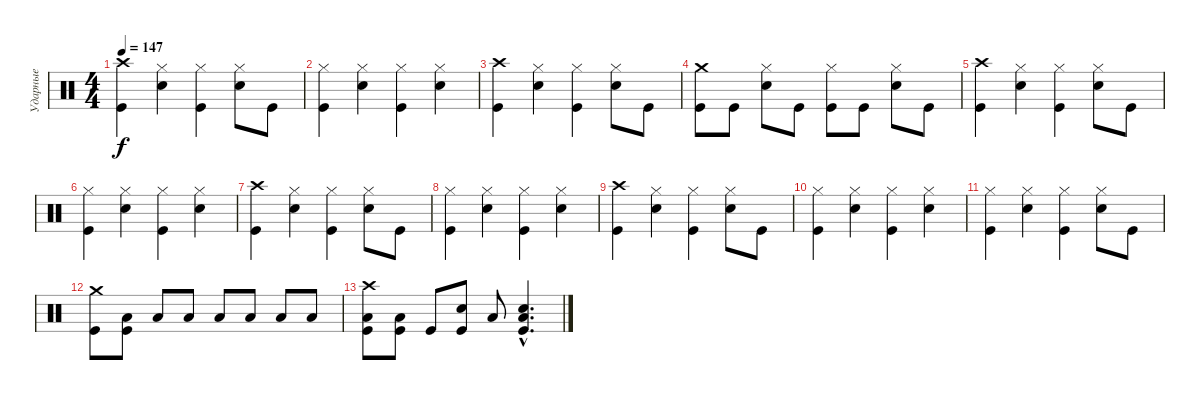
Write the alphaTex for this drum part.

\track ("Ударные" "Ударные") {instrument percussion}
\staff {score}
\articulation defaults
\ts (4 4)
\tempo 147
\clef neutral
\ks c
("Crash high (hit)" "Kick (hit)").4{dy f} ("Hi-Hat (closed)" "Electric Snare (hit)").4 ("Hi-Hat (closed)" "Kick (hit)").4 ("Hi-Hat (closed)" "Electric Snare (hit)").8 "Kick (hit)".8 |
("Hi-Hat (closed)" "Kick (hit)").4 ("Hi-Hat (closed)" "Electric Snare (hit)").4 ("Hi-Hat (closed)" "Kick (hit)").4 ("Hi-Hat (closed)" "Electric Snare (hit)").4 |
("Crash high (hit)" "Kick (hit)").4 ("Hi-Hat (closed)" "Electric Snare (hit)").4 ("Hi-Hat (closed)" "Kick (hit)").4 ("Hi-Hat (closed)" "Electric Snare (hit)").8 "Kick (hit)".8 |
("Crash medium (hit)" "Kick (hit)").8 "Kick (hit)".8 ("Hi-Hat (closed)" "Electric Snare (hit)").8 "Kick (hit)".8 ("Hi-Hat (closed)" "Kick (hit)").8 "Kick (hit)".8 ("Hi-Hat (closed)" "Electric Snare (hit)").8 "Kick (hit)".8 |
("Crash high (hit)" "Kick (hit)").4 ("Hi-Hat (closed)" "Electric Snare (hit)").4 ("Hi-Hat (closed)" "Kick (hit)").4 ("Hi-Hat (closed)" "Electric Snare (hit)").8 "Kick (hit)".8 |
("Hi-Hat (closed)" "Kick (hit)").4 ("Hi-Hat (closed)" "Electric Snare (hit)").4 ("Hi-Hat (closed)" "Kick (hit)").4 ("Hi-Hat (closed)" "Electric Snare (hit)").4 |
("Crash high (hit)" "Kick (hit)").4 ("Hi-Hat (closed)" "Electric Snare (hit)").4 ("Hi-Hat (closed)" "Kick (hit)").4 ("Hi-Hat (closed)" "Electric Snare (hit)").8 "Kick (hit)".8 |
("Hi-Hat (closed)" "Kick (hit)").4 ("Hi-Hat (closed)" "Electric Snare (hit)").4 ("Hi-Hat (closed)" "Kick (hit)").4 ("Hi-Hat (closed)" "Electric Snare (hit)").4 |
("Crash high (hit)" "Kick (hit)").4 ("Hi-Hat (closed)" "Electric Snare (hit)").4 ("Hi-Hat (closed)" "Kick (hit)").4 ("Hi-Hat (closed)" "Electric Snare (hit)").8 "Kick (hit)".8 |
("Hi-Hat (closed)" "Kick (hit)").4 ("Hi-Hat (closed)" "Electric Snare (hit)").4 ("Hi-Hat (closed)" "Kick (hit)").4 ("Hi-Hat (closed)" "Electric Snare (hit)").4 |
("Hi-Hat (closed)" "Kick (hit)").4 ("Hi-Hat (closed)" "Electric Snare (hit)").4 ("Hi-Hat (closed)" "Kick (hit)").4 ("Hi-Hat (closed)" "Electric Snare (hit)").8 "Kick (hit)".8 |
("Crash medium (hit)" "Kick (hit)").8 ("Low Tom (hit)" "Kick (hit)").8 "Low Tom (hit)".8 "Low Tom (hit)".8 "Low Tom (hit)".8 "Low Tom (hit)".8 "Low Tom (hit)".8 "Low Tom (hit)".8 |
("Crash high (hit)" "Low Tom (hit)" "Kick (hit)").8 ("Low Tom (hit)" "Kick (hit)").8 "Kick (hit)".8 ("Electric Snare (hit)" "Kick (hit)").8 "Low Tom (hit)".8 ("Low Tom (hit)"{hac} "Electric Snare (hit)"{hac} "Kick (hit)"{hac}).4{d}
